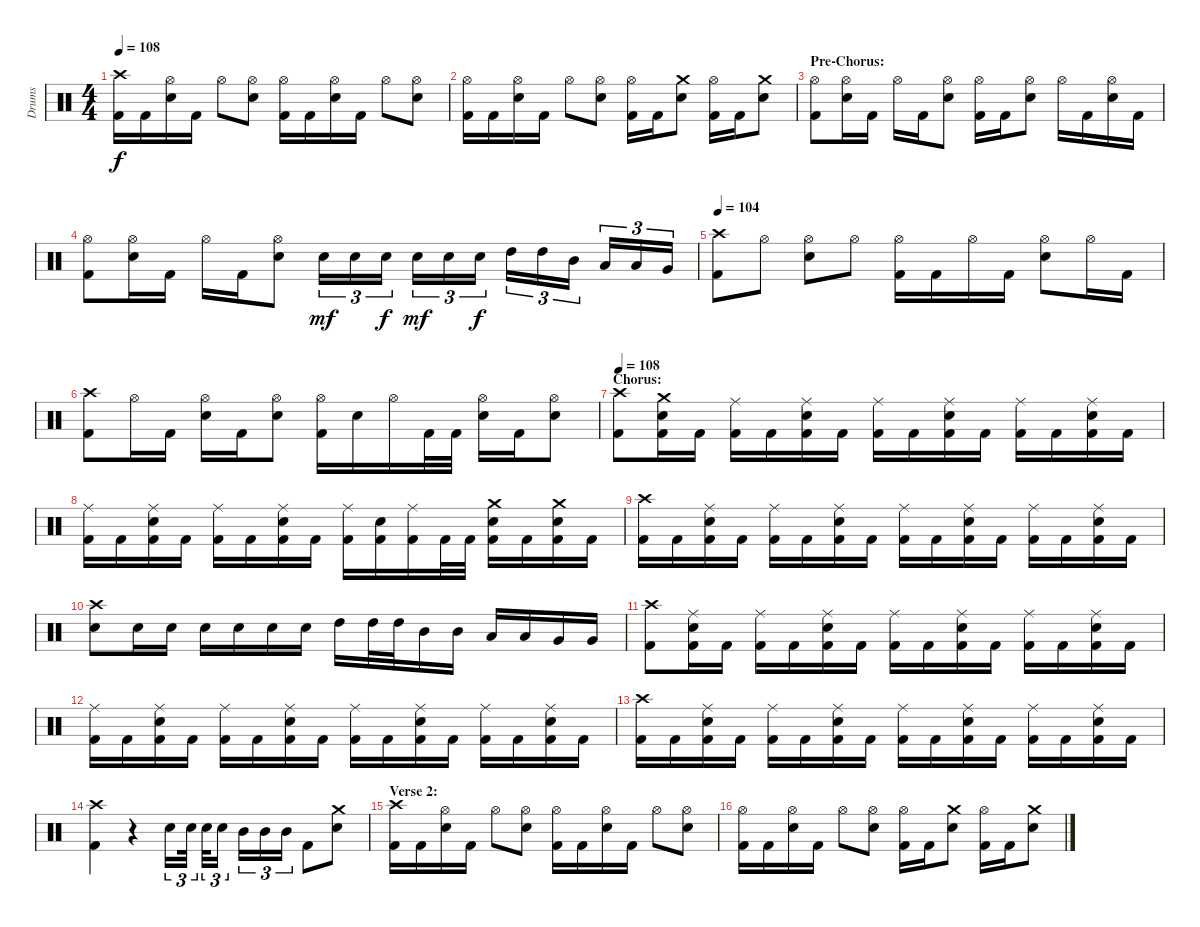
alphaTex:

\track ("Drums" "Drums") {instrument percussion}
\staff {score}
\articulation defaults
\ts (4 4)
\tempo 108
\clef neutral
\ks c
("Crash high (hit)" "Kick (hit) 2").16{dy f} "Kick (hit) 2".16 ("Hi-Hat (open)" "Electric Snare (hit)").16 "Kick (hit) 2".16 "Hi-Hat (open)".8 ("Hi-Hat (open)" "Electric Snare (hit)").8 ("Hi-Hat (open)" "Kick (hit) 2").16 "Kick (hit) 2".16 ("Hi-Hat (open)" "Electric Snare (hit)").16 "Kick (hit) 2".16 "Hi-Hat (open)".8 ("Hi-Hat (open)" "Electric Snare (hit)").8 |
("Hi-Hat (open)" "Kick (hit) 2").16 "Kick (hit) 2".16 ("Hi-Hat (open)" "Electric Snare (hit)").16 "Kick (hit) 2".16 "Hi-Hat (open)".8 ("Hi-Hat (open)" "Electric Snare (hit)").8 ("Hi-Hat (open)" "Kick (hit) 2").16 "Kick (hit) 2".16 ("Crash medium (hit)" "Electric Snare (hit)").8 ("Hi-Hat (open)" "Kick (hit) 2").16 "Kick (hit) 2".16 ("Crash medium (hit)" "Electric Snare (hit)").8 |
\section ("" "Pre-Chorus:")
("Hi-Hat (open)" "Kick (hit) 2").8 ("Hi-Hat (open)" "Electric Snare (hit)").16 "Kick (hit) 2".16 "Hi-Hat (open)".16 "Kick (hit) 2".16 ("Hi-Hat (open)" "Electric Snare (hit)").8 ("Hi-Hat (open)" "Kick (hit) 2").16 "Kick (hit) 2".16 ("Hi-Hat (open)" "Electric Snare (hit)").8 "Hi-Hat (open)".16 "Kick (hit) 2".16 ("Hi-Hat (open)" "Electric Snare (hit)").16 "Kick (hit) 2".16 |
("Hi-Hat (open)" "Kick (hit) 2").8 ("Hi-Hat (open)" "Electric Snare (hit)").16 "Kick (hit) 2".16 "Hi-Hat (open)".16 "Kick (hit) 2".16 ("Hi-Hat (open)" "Electric Snare (hit)").8 "Electric Snare (hit)".16{tu (3 2) dy mf} "Electric Snare (hit)".16{tu (3 2)} "Electric Snare (hit)".16{tu (3 2) dy f} "Electric Snare (hit)".16{tu (3 2) dy mf} "Electric Snare (hit)".16{tu (3 2)} "Electric Snare (hit)".16{tu (3 2) dy f} "High Tom (hit)".16{tu (3 2)} "High Tom (hit)".16{tu (3 2)} "Mid Tom (hit)".16{tu (3 2)} "Low Tom (hit)".16{tu (3 2)} "Low Tom (hit)".16{tu (3 2)} "Very Low Tom (hit)".16{tu (3 2)} |
\tempo 104
("Crash high (hit)" "Kick (hit) 2").8 "Hi-Hat (open)".8 ("Hi-Hat (open)" "Electric Snare (hit)").8 "Hi-Hat (open)".8 ("Hi-Hat (open)" "Kick (hit) 2").16 "Kick (hit) 2".16 "Hi-Hat (open)".16 "Kick (hit) 2".16 ("Hi-Hat (open)" "Electric Snare (hit)").8 "Hi-Hat (open)".16 "Kick (hit) 2".16 |
("Crash high (hit)" "Kick (hit) 2").8 "Hi-Hat (open)".16 "Kick (hit) 2".16 ("Hi-Hat (open)" "Electric Snare (hit)").16 "Kick (hit) 2".16 ("Hi-Hat (open)" "Electric Snare (hit)").8 ("Hi-Hat (open)" "Kick (hit) 2").16 "Electric Snare (hit)".16 "Hi-Hat (open)".16 "Kick (hit) 2".32 "Kick (hit) 2".32 ("Hi-Hat (open)" "Electric Snare (hit)").16 "Kick (hit) 2".16 ("Hi-Hat (open)" "Electric Snare (hit)").8 |
\section ("" "Chorus:")
\tempo 108
("Crash high (hit)" "Kick (hit) 2").8 ("Crash medium (hit)" "Electric Snare (hit)" "Kick (hit) 2").16 "Kick (hit) 2".16 ("Ride (middle)" "Kick (hit) 2").16 "Kick (hit) 2".16 ("Ride (middle)" "Electric Snare (hit)" "Kick (hit) 2").16 "Kick (hit) 2".16 ("Ride (middle)" "Kick (hit) 2").16 "Kick (hit) 2".16 ("Ride (middle)" "Electric Snare (hit)" "Kick (hit) 2").16 "Kick (hit) 2".16 ("Ride (middle)" "Kick (hit) 2").16 "Kick (hit) 2".16 ("Ride (middle)" "Electric Snare (hit)" "Kick (hit) 2").16 "Kick (hit) 2".16 |
("Ride (middle)" "Kick (hit) 2").16 "Kick (hit) 2".16 ("Ride (middle)" "Electric Snare (hit)" "Kick (hit) 2").16 "Kick (hit) 2".16 ("Ride (middle)" "Kick (hit) 2").16 "Kick (hit) 2".16 ("Ride (middle)" "Electric Snare (hit)" "Kick (hit) 2").16 "Kick (hit) 2".16 ("Ride (middle)" "Kick (hit) 2").16 ("Electric Snare (hit)" "Kick (hit) 2").16 ("Ride (middle)" "Kick (hit) 2").16 "Kick (hit) 2".32 "Kick (hit) 2".32 ("Crash medium (hit)" "Electric Snare (hit)" "Kick (hit) 2").16 "Kick (hit) 2".16 ("Crash medium (hit)" "Electric Snare (hit)" "Kick (hit) 2").16 "Kick (hit) 2".16 |
("Crash high (hit)" "Kick (hit) 2").16 "Kick (hit) 2".16 ("Ride (middle)" "Electric Snare (hit)" "Kick (hit) 2").16 "Kick (hit) 2".16 ("Ride (middle)" "Kick (hit) 2").16 "Kick (hit) 2".16 ("Ride (middle)" "Electric Snare (hit)" "Kick (hit) 2").16 "Kick (hit) 2".16 ("Ride (middle)" "Kick (hit) 2").16 "Kick (hit) 2".16 ("Ride (middle)" "Electric Snare (hit)" "Kick (hit) 2").16 "Kick (hit) 2".16 ("Ride (middle)" "Kick (hit) 2").16 "Kick (hit) 2".16 ("Ride (middle)" "Electric Snare (hit)" "Kick (hit) 2").16 "Kick (hit) 2".16 |
("Crash high (hit)" "Electric Snare (hit)").8 "Electric Snare (hit)".16 "Electric Snare (hit)".16 "Electric Snare (hit)".16 "Electric Snare (hit)".16 "Electric Snare (hit)".16 "Electric Snare (hit)".16 "High Tom (hit)".16 "High Tom (hit)".32 "High Tom (hit)".32 "Mid Tom (hit)".16 "Mid Tom (hit)".16 "Low Tom (hit)".16 "Low Tom (hit)".16 "Very Low Tom (hit)".16 "Very Low Tom (hit)".16 |
("Crash high (hit)" "Kick (hit) 2").8 ("Ride (middle)" "Electric Snare (hit)" "Kick (hit) 2").16 "Kick (hit) 2".16 ("Ride (middle)" "Kick (hit) 2").16 "Kick (hit) 2".16 ("Ride (middle)" "Electric Snare (hit)" "Kick (hit) 2").16 "Kick (hit) 2".16 ("Ride (middle)" "Kick (hit) 2").16 "Kick (hit) 2".16 ("Ride (middle)" "Electric Snare (hit)" "Kick (hit) 2").16 "Kick (hit) 2".16 ("Ride (middle)" "Kick (hit) 2").16 "Kick (hit) 2".16 ("Ride (middle)" "Electric Snare (hit)" "Kick (hit) 2").16 "Kick (hit) 2".16 |
("Ride (middle)" "Kick (hit) 2").16 "Kick (hit) 2".16 ("Ride (middle)" "Electric Snare (hit)" "Kick (hit) 2").16 "Kick (hit) 2".16 ("Ride (middle)" "Kick (hit) 2").16 "Kick (hit) 2".16 ("Ride (middle)" "Electric Snare (hit)" "Kick (hit) 2").16 "Kick (hit) 2".16 ("Ride (middle)" "Kick (hit) 2").16 "Kick (hit) 2".16 ("Ride (middle)" "Electric Snare (hit)" "Kick (hit) 2").16 "Kick (hit) 2".16 ("Ride (middle)" "Kick (hit) 2").16 "Kick (hit) 2".16 ("Ride (middle)" "Electric Snare (hit)" "Kick (hit) 2").16 "Kick (hit) 2".16 |
("Crash high (hit)" "Kick (hit) 2").16 "Kick (hit) 2".16 ("Ride (middle)" "Electric Snare (hit)" "Kick (hit) 2").16 "Kick (hit) 2".16 ("Ride (middle)" "Kick (hit) 2").16 "Kick (hit) 2".16 ("Ride (middle)" "Electric Snare (hit)" "Kick (hit) 2").16 "Kick (hit) 2".16 ("Ride (middle)" "Kick (hit) 2").16 "Kick (hit) 2".16 ("Ride (middle)" "Electric Snare (hit)" "Kick (hit) 2").16 "Kick (hit) 2".16 ("Ride (middle)" "Kick (hit) 2").16 "Kick (hit) 2".16 ("Ride (middle)" "Electric Snare (hit)" "Kick (hit) 2").16 "Kick (hit) 2".16 |
("Crash high (hit)" "Kick (hit) 2").4 r.4 "Electric Snare (hit)".16{tu (3 2)} "Electric Snare (hit)".32{tu (3 2)} "Electric Snare (hit)".32{tu (3 2)} "Electric Snare (hit)".16{tu (3 2)} "Mid Tom (hit)".16{tu (3 2)} "Mid Tom (hit)".16{tu (3 2)} "Mid Tom (hit)".16{tu (3 2)} "Kick (hit) 2".8 ("Crash medium (hit)" "Electric Snare (hit)").8 |
\section ("" "Verse 2:")
("Crash high (hit)" "Kick (hit) 2").16 "Kick (hit) 2".16 ("Hi-Hat (open)" "Electric Snare (hit)").16 "Kick (hit) 2".16 "Hi-Hat (open)".8 ("Hi-Hat (open)" "Electric Snare (hit)").8 ("Hi-Hat (open)" "Kick (hit) 2").16 "Kick (hit) 2".16 ("Hi-Hat (open)" "Electric Snare (hit)").16 "Kick (hit) 2".16 "Hi-Hat (open)".8 ("Hi-Hat (open)" "Electric Snare (hit)").8 |
("Hi-Hat (open)" "Kick (hit) 2").16 "Kick (hit) 2".16 ("Hi-Hat (open)" "Electric Snare (hit)").16 "Kick (hit) 2".16 "Hi-Hat (open)".8 ("Hi-Hat (open)" "Electric Snare (hit)").8 ("Hi-Hat (open)" "Kick (hit) 2").16 "Kick (hit) 2".16 ("Crash medium (hit)" "Electric Snare (hit)").8 ("Hi-Hat (open)" "Kick (hit) 2").16 "Kick (hit) 2".16 ("Crash medium (hit)" "Electric Snare (hit)").8
